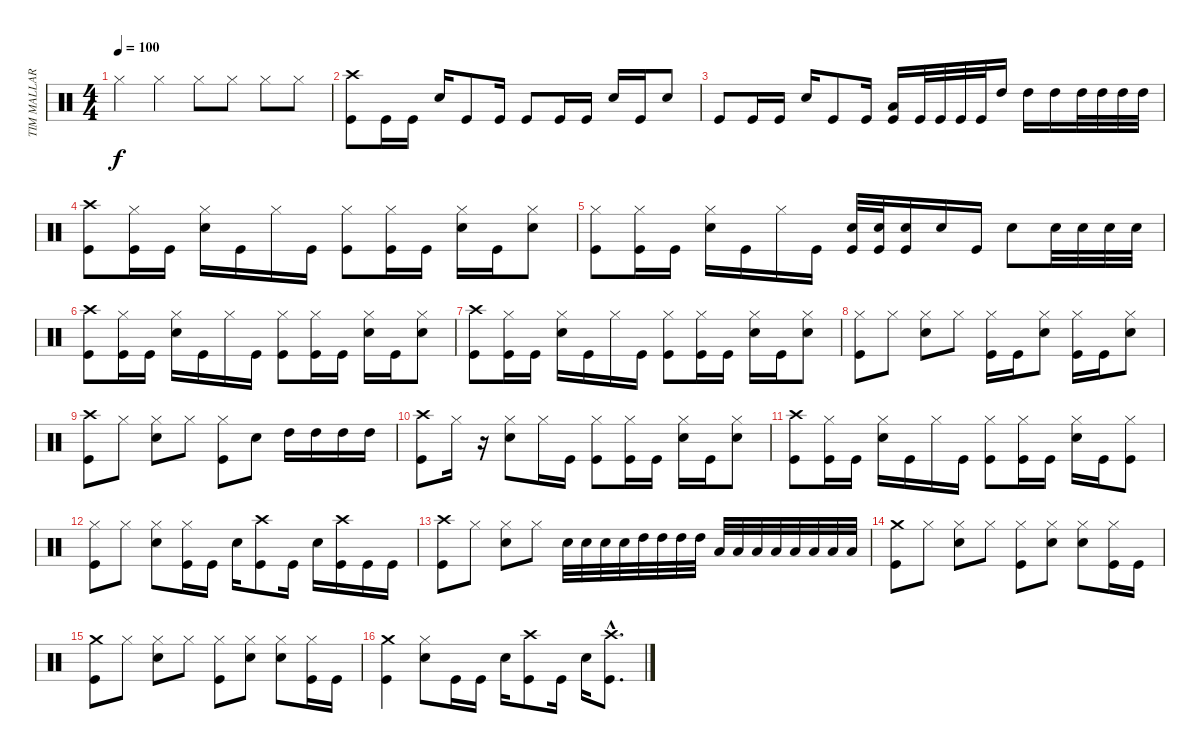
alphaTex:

\track ("TIM MALLARE - drums" "TIM MALLAR") {instrument percussion}
\staff {score}
\articulation defaults
\ts (4 4)
\tempo 100
\clef neutral
\ks c "Hi-Hat (closed)".4{dy f} "Hi-Hat (closed)".4 "Hi-Hat (closed)".8 "Hi-Hat (closed)".8 "Hi-Hat (closed)".8 "Hi-Hat (closed)".8
|
("Crash high (hit)" "Kick (hit)").8 "Kick (hit)".16 "Kick (hit)".16 "Electric Snare (hit)".16 "Kick (hit)".8 "Kick (hit)".16 "Kick (hit)".8 "Kick (hit)".16 "Kick (hit)".16 "Electric Snare (hit)".16 "Kick (hit)".16 "Electric Snare (hit)".8 |
"Kick (hit)".8 "Kick (hit)".16 "Kick (hit)".16 "Electric Snare (hit)".16 "Kick (hit)".8 "Kick (hit)".16 ("Low Tom (hit)" "Kick (hit)").16 "Kick (hit)".32 "Kick (hit)".32 "Kick (hit)".32 "Kick (hit)".32 "High Tom (hit)".16 "High Tom (hit)".16 "High Tom (hit)".16 "High Tom (hit)".32 "High Tom (hit)".32 "High Tom (hit)".32 "High Tom (hit)".32 |
("Crash high (hit)" "Kick (hit)").8 ("Hi-Hat (closed)" "Kick (hit)").16 "Kick (hit)".16 ("Hi-Hat (closed)" "Electric Snare (hit)").16 "Kick (hit)".16 "Hi-Hat (closed)".16 "Kick (hit)".16 ("Hi-Hat (closed)" "Kick (hit)").8 ("Hi-Hat (closed)" "Kick (hit)").16 "Kick (hit)".16 ("Hi-Hat (closed)" "Electric Snare (hit)").16 "Kick (hit)".16 ("Hi-Hat (closed)" "Electric Snare (hit)").8 |
("Hi-Hat (closed)" "Kick (hit)").8 ("Hi-Hat (closed)" "Kick (hit)").16 "Kick (hit)".16 ("Hi-Hat (closed)" "Electric Snare (hit)").16 "Kick (hit)".16 "Hi-Hat (closed)".16 "Kick (hit)".16 ("Electric Snare (hit)" "Kick (hit)").32 ("Electric Snare (hit)" "Kick (hit)").32 ("Electric Snare (hit)" "Kick (hit)").16 "Electric Snare (hit)".16 "Kick (hit)".16 "Electric Snare (hit)".8 "Electric Snare (hit)".32 "Electric Snare (hit)".32 "Electric Snare (hit)".32 "Electric Snare (hit)".32 |
("Crash high (hit)" "Kick (hit)").8 ("Hi-Hat (closed)" "Kick (hit)").16 "Kick (hit)".16 ("Hi-Hat (closed)" "Electric Snare (hit)").16 "Kick (hit)".16 "Hi-Hat (closed)".16 "Kick (hit)".16 ("Hi-Hat (closed)" "Kick (hit)").8 ("Hi-Hat (closed)" "Kick (hit)").16 "Kick (hit)".16 ("Hi-Hat (closed)" "Electric Snare (hit)").16 "Kick (hit)".16 ("Hi-Hat (closed)" "Electric Snare (hit)").8 |
("Crash high (hit)" "Kick (hit)").8 ("Hi-Hat (closed)" "Kick (hit)").16 "Kick (hit)".16 ("Hi-Hat (closed)" "Electric Snare (hit)").16 "Kick (hit)".16 "Hi-Hat (closed)".16 "Kick (hit)".16 ("Hi-Hat (closed)" "Kick (hit)").8 ("Hi-Hat (closed)" "Kick (hit)").16 "Kick (hit)".16 ("Hi-Hat (closed)" "Electric Snare (hit)").16 "Kick (hit)".16 ("Hi-Hat (closed)" "Electric Snare (hit)").8 |
("Hi-Hat (closed)" "Kick (hit)").8 "Hi-Hat (closed)".8 ("Hi-Hat (closed)" "Electric Snare (hit)").8 "Hi-Hat (closed)".8 ("Hi-Hat (closed)" "Kick (hit)").16 "Kick (hit)".16 ("Hi-Hat (closed)" "Electric Snare (hit)").8 ("Hi-Hat (closed)" "Kick (hit)").16 "Kick (hit)".16 ("Hi-Hat (closed)" "Electric Snare (hit)").8 |
("Crash high (hit)" "Kick (hit)").8 "Hi-Hat (closed)".8 ("Hi-Hat (closed)" "Electric Snare (hit)").8 "Hi-Hat (closed)".8 ("Hi-Hat (closed)" "Kick (hit)").8 "Electric Snare (hit)".8 "High Tom (hit)".16 "High Tom (hit)".16 "High Tom (hit)".16 "High Tom (hit)".16 |
("Crash high (hit)" "Kick (hit)").8 "Hi-Hat (closed)".16 r.16 ("Hi-Hat (closed)" "Electric Snare (hit)").8 "Hi-Hat (closed)".16 "Kick (hit)".16 ("Hi-Hat (closed)" "Kick (hit)").8 ("Hi-Hat (closed)" "Kick (hit)").16 "Kick (hit)".16 ("Hi-Hat (closed)" "Electric Snare (hit)").16 "Kick (hit)".16 ("Hi-Hat (closed)" "Electric Snare (hit)").8 |
("Crash high (hit)" "Kick (hit)").8 ("Hi-Hat (closed)" "Kick (hit)").16 "Kick (hit)".16 ("Hi-Hat (closed)" "Electric Snare (hit)").16 "Kick (hit)".16 "Hi-Hat (closed)".16 "Kick (hit)".16 ("Hi-Hat (closed)" "Kick (hit)").8 ("Hi-Hat (closed)" "Kick (hit)").16 "Kick (hit)".16 ("Hi-Hat (closed)" "Electric Snare (hit)").16 "Kick (hit)".16 ("Hi-Hat (closed)" "Kick (hit)").8 |
("Hi-Hat (closed)" "Kick (hit)").8 "Hi-Hat (closed)".8 ("Hi-Hat (closed)" "Electric Snare (hit)").8 ("Hi-Hat (closed)" "Kick (hit)").16 "Kick (hit)".16 "Electric Snare (hit)".16 ("Crash high (hit)" "Kick (hit)").8 "Kick (hit)".16 "Electric Snare (hit)".16 ("Crash high (hit)" "Kick (hit)").16 "Kick (hit)".16 "Kick (hit)".16 |
("Crash high (hit)" "Kick (hit)").8 "Hi-Hat (closed)".8 ("Hi-Hat (closed)" "Electric Snare (hit)").8 "Hi-Hat (closed)".8 "Electric Snare (hit)".32 "Electric Snare (hit)".32 "Electric Snare (hit)".32 "Electric Snare (hit)".32 "High Tom (hit)".32 "High Tom (hit)".32 "High Tom (hit)".32 "High Tom (hit)".32 "Low Tom (hit)".32 "Low Tom (hit)".32 "Low Tom (hit)".32 "Low Tom (hit)".32 "Low Tom (hit)".32 "Low Tom (hit)".32 "Low Tom (hit)".32 "Low Tom (hit)".32 |
("Crash medium (hit)" "Kick (hit)").8 "Hi-Hat (closed)".8 ("Hi-Hat (closed)" "Electric Snare (hit)").8 "Hi-Hat (closed)".8 ("Hi-Hat (closed)" "Kick (hit)").8 ("Hi-Hat (closed)" "Electric Snare (hit)").8 ("Hi-Hat (closed)" "Electric Snare (hit)").8 ("Hi-Hat (closed)" "Kick (hit)").16 "Kick (hit)".16 |
("Crash medium (hit)" "Kick (hit)").8 "Hi-Hat (closed)".8 ("Hi-Hat (closed)" "Electric Snare (hit)").8 "Hi-Hat (closed)".8 ("Hi-Hat (closed)" "Kick (hit)").8 ("Hi-Hat (closed)" "Electric Snare (hit)").8 ("Hi-Hat (closed)" "Electric Snare (hit)").8 ("Hi-Hat (closed)" "Kick (hit)").16 "Kick (hit)".16 |
("Crash medium (hit)" "Kick (hit)").4 ("Hi-Hat (closed)" "Electric Snare (hit)").8 "Kick (hit)".16 "Kick (hit)".16 "Electric Snare (hit)".16 ("Crash high (hit)" "Kick (hit)").8 "Kick (hit)".16 "Electric Snare (hit)".16 ("Crash high (hit)"{hac} "Kick (hit)"{hac}).8{d}
